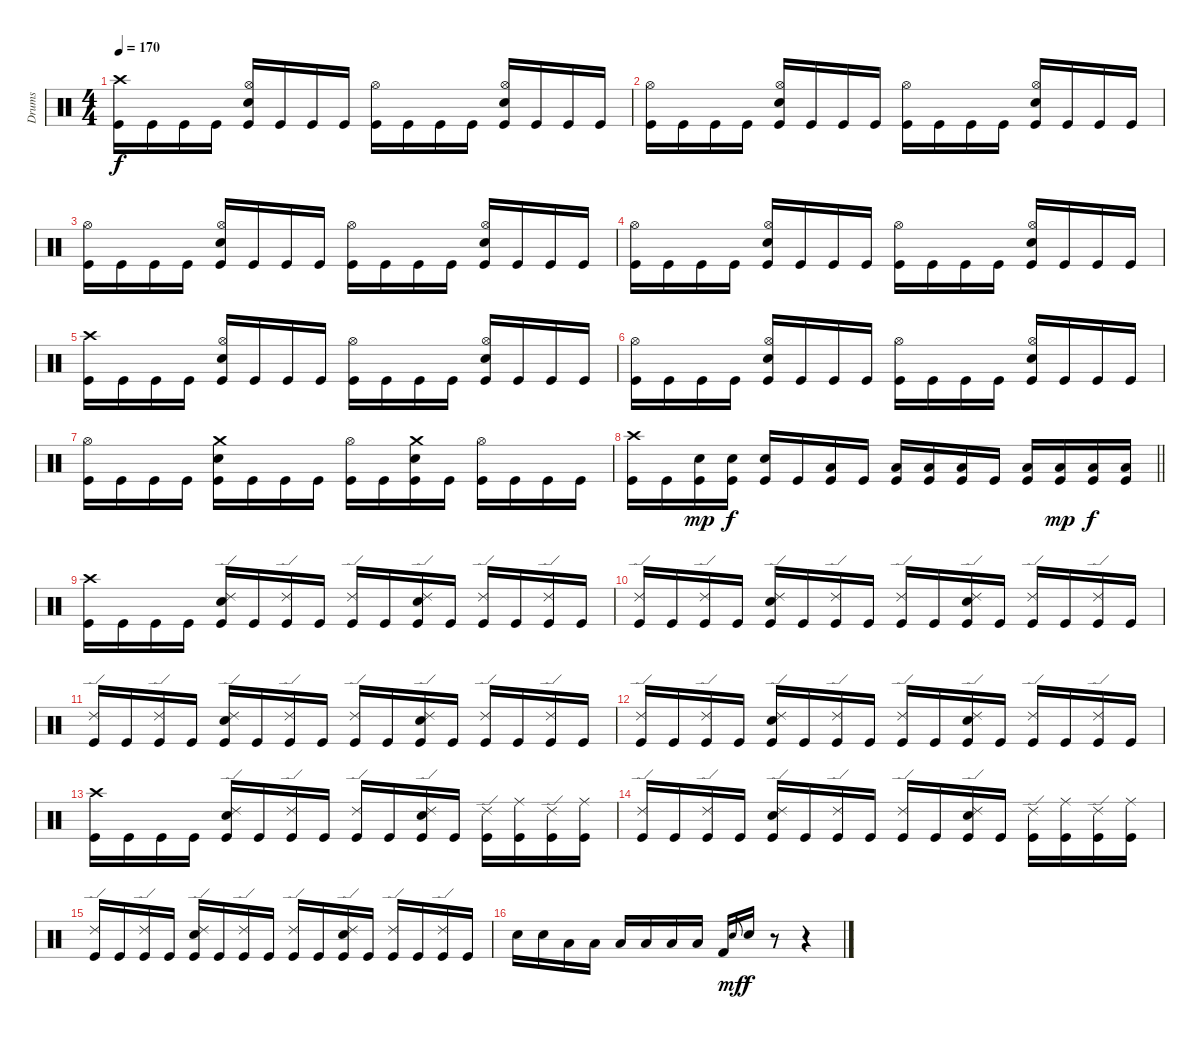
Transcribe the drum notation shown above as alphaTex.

\track ("Drums" "Drums") {instrument percussion}
\staff {score}
\articulation defaults
\ts (4 4)
\tempo 170
\clef neutral
\ks c
("Crash high (hit)" "Kick (hit)").16{dy f} "Kick (hit)".16 "Kick (hit)".16 "Kick (hit)".16 ("Hi-Hat (open)" "Electric Snare (hit)" "Kick (hit)").16 "Kick (hit)".16 "Kick (hit)".16 "Kick (hit)".16 ("Hi-Hat (open)" "Kick (hit)").16 "Kick (hit)".16 "Kick (hit)".16 "Kick (hit)".16 ("Hi-Hat (open)" "Electric Snare (hit)" "Kick (hit)").16 "Kick (hit)".16 "Kick (hit)".16 "Kick (hit)".16 |
("Hi-Hat (open)" "Kick (hit)").16 "Kick (hit)".16 "Kick (hit)".16 "Kick (hit)".16 ("Hi-Hat (open)" "Electric Snare (hit)" "Kick (hit)").16 "Kick (hit)".16 "Kick (hit)".16 "Kick (hit)".16 ("Hi-Hat (open)" "Kick (hit)").16 "Kick (hit)".16 "Kick (hit)".16 "Kick (hit)".16 ("Hi-Hat (open)" "Electric Snare (hit)" "Kick (hit)").16 "Kick (hit)".16 "Kick (hit)".16 "Kick (hit)".16 |
("Hi-Hat (open)" "Kick (hit)").16 "Kick (hit)".16 "Kick (hit)".16 "Kick (hit)".16 ("Hi-Hat (open)" "Electric Snare (hit)" "Kick (hit)").16 "Kick (hit)".16 "Kick (hit)".16 "Kick (hit)".16 ("Hi-Hat (open)" "Kick (hit)").16 "Kick (hit)".16 "Kick (hit)".16 "Kick (hit)".16 ("Hi-Hat (open)" "Electric Snare (hit)" "Kick (hit)").16 "Kick (hit)".16 "Kick (hit)".16 "Kick (hit)".16 |
("Hi-Hat (open)" "Kick (hit)").16 "Kick (hit)".16 "Kick (hit)".16 "Kick (hit)".16 ("Hi-Hat (open)" "Electric Snare (hit)" "Kick (hit)").16 "Kick (hit)".16 "Kick (hit)".16 "Kick (hit)".16 ("Hi-Hat (open)" "Kick (hit)").16 "Kick (hit)".16 "Kick (hit)".16 "Kick (hit)".16 ("Hi-Hat (open)" "Electric Snare (hit)" "Kick (hit)").16 "Kick (hit)".16 "Kick (hit)".16 "Kick (hit)".16 |
("Crash high (hit)" "Kick (hit)").16 "Kick (hit)".16 "Kick (hit)".16 "Kick (hit)".16 ("Hi-Hat (open)" "Electric Snare (hit)" "Kick (hit)").16 "Kick (hit)".16 "Kick (hit)".16 "Kick (hit)".16 ("Hi-Hat (open)" "Kick (hit)").16 "Kick (hit)".16 "Kick (hit)".16 "Kick (hit)".16 ("Hi-Hat (open)" "Electric Snare (hit)" "Kick (hit)").16 "Kick (hit)".16 "Kick (hit)".16 "Kick (hit)".16 |
("Hi-Hat (open)" "Kick (hit)").16 "Kick (hit)".16 "Kick (hit)".16 "Kick (hit)".16 ("Hi-Hat (open)" "Electric Snare (hit)" "Kick (hit)").16 "Kick (hit)".16 "Kick (hit)".16 "Kick (hit)".16 ("Hi-Hat (open)" "Kick (hit)").16 "Kick (hit)".16 "Kick (hit)".16 "Kick (hit)".16 ("Hi-Hat (open)" "Electric Snare (hit)" "Kick (hit)").16 "Kick (hit)".16 "Kick (hit)".16 "Kick (hit)".16 |
("Hi-Hat (open)" "Kick (hit)").16 "Kick (hit)".16 "Kick (hit)".16 "Kick (hit)".16 ("Crash medium (hit)" "Electric Snare (hit)" "Kick (hit)").16 "Kick (hit)".16 "Kick (hit)".16 "Kick (hit)".16 ("Hi-Hat (open)" "Kick (hit)").16 "Kick (hit)".16 ("Crash medium (hit)" "Electric Snare (hit)" "Kick (hit)").16 "Kick (hit)".16 ("Hi-Hat (open)" "Kick (hit)").16 "Kick (hit)".16 "Kick (hit)".16 "Kick (hit)".16 |
\barLineRight lightlight
("Crash high (hit)" "Kick (hit)").16 "Kick (hit)".16 ("Electric Snare (hit)" "Kick (hit)").16{dy mp} ("Electric Snare (hit)" "Kick (hit)").16{dy f} ("Electric Snare (hit)" "Kick (hit)").16 "Kick (hit)".16 ("Low Tom (hit)" "Kick (hit)").16 "Kick (hit)".16 ("Low Tom (hit)" "Kick (hit)").16 ("Low Tom (hit)" "Kick (hit)").16 ("Low Tom (hit)" "Kick (hit)").16 "Kick (hit)".16 ("Low Floor Tom (hit)" "Kick (hit)").16 ("Low Floor Tom (hit)" "Kick (hit)").16{dy mp} ("Low Floor Tom (hit)" "Kick (hit)").16{dy f} ("Low Floor Tom (hit)" "Kick (hit)").16 |
("Crash high (hit)" "Kick (hit)").16 "Kick (hit)".16 "Kick (hit)".16 "Kick (hit)".16 ("Ride (edge) 2" "Electric Snare (hit)" "Kick (hit)").16 "Kick (hit)".16 ("Ride (edge) 2" "Kick (hit)").16 "Kick (hit)".16 ("Ride (edge) 2" "Kick (hit)").16 "Kick (hit)".16 ("Ride (edge) 2" "Electric Snare (hit)" "Kick (hit)").16 "Kick (hit)".16 ("Ride (edge) 2" "Kick (hit)").16 "Kick (hit)".16 ("Ride (edge) 2" "Kick (hit)").16 "Kick (hit)".16 |
("Ride (edge) 2" "Kick (hit)").16 "Kick (hit)".16 ("Ride (edge) 2" "Kick (hit)").16 "Kick (hit)".16 ("Ride (edge) 2" "Electric Snare (hit)" "Kick (hit)").16 "Kick (hit)".16 ("Ride (edge) 2" "Kick (hit)").16 "Kick (hit)".16 ("Ride (edge) 2" "Kick (hit)").16 "Kick (hit)".16 ("Ride (edge) 2" "Electric Snare (hit)" "Kick (hit)").16 "Kick (hit)".16 ("Ride (edge) 2" "Kick (hit)").16 "Kick (hit)".16 ("Ride (edge) 2" "Kick (hit)").16 "Kick (hit)".16 |
("Ride (edge) 2" "Kick (hit)").16 "Kick (hit)".16 ("Ride (edge) 2" "Kick (hit)").16 "Kick (hit)".16 ("Ride (edge) 2" "Electric Snare (hit)" "Kick (hit)").16 "Kick (hit)".16 ("Ride (edge) 2" "Kick (hit)").16 "Kick (hit)".16 ("Ride (edge) 2" "Kick (hit)").16 "Kick (hit)".16 ("Ride (edge) 2" "Electric Snare (hit)" "Kick (hit)").16 "Kick (hit)".16 ("Ride (edge) 2" "Kick (hit)").16 "Kick (hit)".16 ("Ride (edge) 2" "Kick (hit)").16 "Kick (hit)".16 |
("Ride (edge) 2" "Kick (hit)").16 "Kick (hit)".16 ("Ride (edge) 2" "Kick (hit)").16 "Kick (hit)".16 ("Ride (edge) 2" "Electric Snare (hit)" "Kick (hit)").16 "Kick (hit)".16 ("Ride (edge) 2" "Kick (hit)").16 "Kick (hit)".16 ("Ride (edge) 2" "Kick (hit)").16 "Kick (hit)".16 ("Ride (edge) 2" "Electric Snare (hit)" "Kick (hit)").16 "Kick (hit)".16 ("Ride (edge) 2" "Kick (hit)").16 "Kick (hit)".16 ("Ride (edge) 2" "Kick (hit)").16 "Kick (hit)".16 |
("Crash high (hit)" "Kick (hit)").16 "Kick (hit)".16 "Kick (hit)".16 "Kick (hit)".16 ("Ride (edge) 2" "Electric Snare (hit)" "Kick (hit)").16 "Kick (hit)".16 ("Ride (edge) 2" "Kick (hit)").16 "Kick (hit)".16 ("Ride (edge) 2" "Kick (hit)").16 "Kick (hit)".16 ("Ride (edge) 2" "Electric Snare (hit)" "Kick (hit)").16 "Kick (hit)".16 ("Ride (edge) 2" "Kick (hit)").16 ("Ride (middle)" "Kick (hit)").16 ("Ride (edge) 2" "Kick (hit)").16 ("Ride (middle)" "Kick (hit)").16 |
("Ride (edge) 2" "Kick (hit)").16 "Kick (hit)".16 ("Ride (edge) 2" "Kick (hit)").16 "Kick (hit)".16 ("Ride (edge) 2" "Electric Snare (hit)" "Kick (hit)").16 "Kick (hit)".16 ("Ride (edge) 2" "Kick (hit)").16 "Kick (hit)".16 ("Ride (edge) 2" "Kick (hit)").16 "Kick (hit)".16 ("Ride (edge) 2" "Electric Snare (hit)" "Kick (hit)").16 "Kick (hit)".16 ("Ride (edge) 2" "Kick (hit)").16 ("Ride (middle)" "Kick (hit)").16 ("Ride (edge) 2" "Kick (hit)").16 ("Ride (middle)" "Kick (hit)").16 |
("Ride (edge) 2" "Kick (hit)").16 "Kick (hit)".16 ("Ride (edge) 2" "Kick (hit)").16 "Kick (hit)".16 ("Ride (edge) 2" "Electric Snare (hit)" "Kick (hit)").16 "Kick (hit)".16 ("Ride (edge) 2" "Kick (hit)").16 "Kick (hit)".16 ("Ride (edge) 2" "Kick (hit)").16 "Kick (hit)".16 ("Ride (edge) 2" "Electric Snare (hit)" "Kick (hit)").16 "Kick (hit)".16 ("Ride (edge) 2" "Kick (hit)").16 "Kick (hit)".16 ("Ride (edge) 2" "Kick (hit)").16 "Kick (hit)".16 |
"Electric Snare (hit)".16 "Electric Snare (hit)".16 "Low Tom (hit)".16 "Low Tom (hit)".16 "Low Tom (hit)".16 "Low Floor Tom (hit)".16 "Low Floor Tom (hit)".16 "Low Floor Tom (hit)".16 "Kick (hit) 2".16 "Electric Snare (hit)".8{gr onbeat dy mf} "Electric Snare (hit)".16{dy f} r.8 r.4
